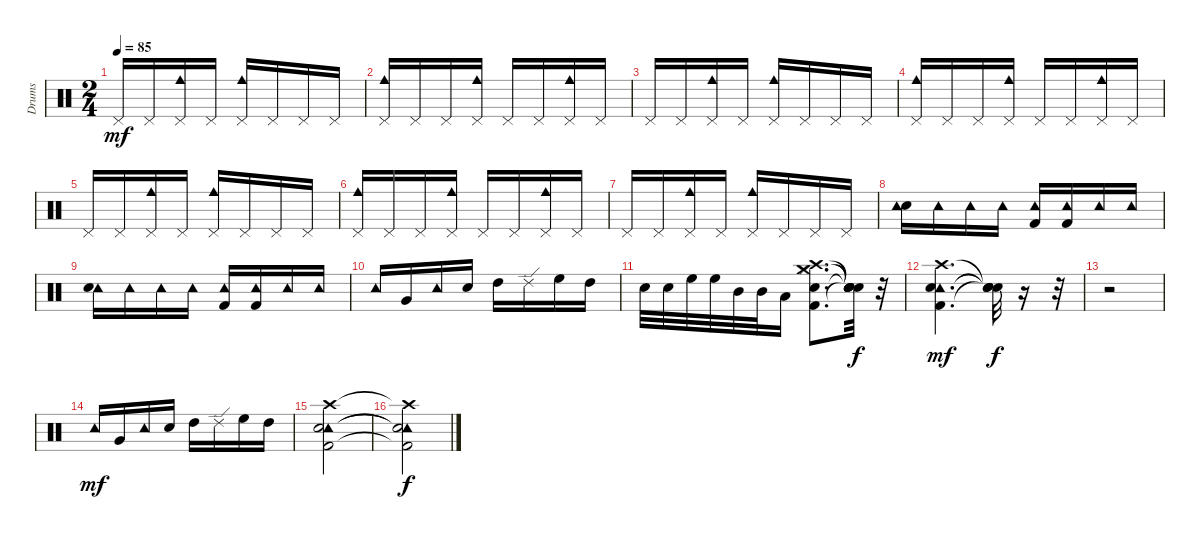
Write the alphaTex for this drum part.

\track ("Drums" "Drums") {instrument percussion}
\staff {score}
\articulation defaults
\ts (2 4)
\tempo 85
\clef neutral
\ks c "Pedal Hi-Hat (hit)".16{dy mf} "Pedal Hi-Hat (hit)".16
("Pedal Hi-Hat (hit)" "Cowbell medium (hit)").16 "Pedal Hi-Hat (hit)".16 ("Pedal Hi-Hat (hit)" "Cowbell medium (hit)").16 "Pedal Hi-Hat (hit)".16 "Pedal Hi-Hat (hit)".16 "Pedal Hi-Hat (hit)".16 |
("Cowbell medium (hit)" "Pedal Hi-Hat (hit)").16 "Pedal Hi-Hat (hit)".16 "Pedal Hi-Hat (hit)".16 ("Pedal Hi-Hat (hit)" "Cowbell medium (hit)").16 "Pedal Hi-Hat (hit)".16 "Pedal Hi-Hat (hit)".16 ("Pedal Hi-Hat (hit)" "Cowbell medium (hit)").16 "Pedal Hi-Hat (hit)".16 |
"Pedal Hi-Hat (hit)".16 "Pedal Hi-Hat (hit)".16 ("Pedal Hi-Hat (hit)" "Cowbell medium (hit)").16 "Pedal Hi-Hat (hit)".16 ("Pedal Hi-Hat (hit)" "Cowbell medium (hit)").16 "Pedal Hi-Hat (hit)".16 "Pedal Hi-Hat (hit)".16 "Pedal Hi-Hat (hit)".16 |
("Cowbell medium (hit)" "Pedal Hi-Hat (hit)").16 "Pedal Hi-Hat (hit)".16 "Pedal Hi-Hat (hit)".16 ("Pedal Hi-Hat (hit)" "Cowbell medium (hit)").16 "Pedal Hi-Hat (hit)".16 "Pedal Hi-Hat (hit)".16 ("Pedal Hi-Hat (hit)" "Cowbell medium (hit)").16 "Pedal Hi-Hat (hit)".16 |
"Pedal Hi-Hat (hit)".16 "Pedal Hi-Hat (hit)".16 ("Pedal Hi-Hat (hit)" "Cowbell medium (hit)").16 "Pedal Hi-Hat (hit)".16 ("Pedal Hi-Hat (hit)" "Cowbell medium (hit)").16 "Pedal Hi-Hat (hit)".16 "Pedal Hi-Hat (hit)".16 "Pedal Hi-Hat (hit)".16 |
("Cowbell medium (hit)" "Pedal Hi-Hat (hit)").16 "Pedal Hi-Hat (hit)".16 "Pedal Hi-Hat (hit)".16 ("Pedal Hi-Hat (hit)" "Cowbell medium (hit)").16 "Pedal Hi-Hat (hit)".16 "Pedal Hi-Hat (hit)".16 ("Pedal Hi-Hat (hit)" "Cowbell medium (hit)").16 "Pedal Hi-Hat (hit)".16 |
"Pedal Hi-Hat (hit)".16 "Pedal Hi-Hat (hit)".16 ("Pedal Hi-Hat (hit)" "Cowbell medium (hit)").16 "Pedal Hi-Hat (hit)".16 ("Pedal Hi-Hat (hit)" "Cowbell medium (hit)").16 "Pedal Hi-Hat (hit)".16 "Pedal Hi-Hat (hit)".16 "Pedal Hi-Hat (hit)".16 |
("Snare (hit) 2" "Tambourine (hit)").16 "Tambourine (hit)".16 "Tambourine (hit)".16 "Tambourine (hit)".16 ("Kick (hit) 2" "Tambourine (hit)").16 ("Kick (hit) 2" "Tambourine (hit)").16 "Tambourine (hit)".16 "Tambourine (hit)".16 |
("Tambourine (hit)" "Snare (hit) 2").16 "Tambourine (hit)".16 "Tambourine (hit)".16 "Tambourine (hit)".16 ("Kick (hit) 2" "Tambourine (hit)").16 ("Tambourine (hit)" "Kick (hit) 2").16 "Tambourine (hit)".16 "Tambourine (hit)".16 |
"Tambourine (hit)".16 "Very Low Tom (hit)".16 "Tambourine (hit)".16 "Snare (hit) 2".16 "High Tom (hit)".16 "Ride (edge) 2".16 "High Floor Tom (hit)".16 "High Tom (hit)".16 |
"Snare (hit) 2".32 "Snare (hit) 2".32 "High Floor Tom (hit)".32 "High Floor Tom (hit)".32 "Mid Tom (hit)".32 "Mid Tom (hit)".32 "Low Floor Tom (hit)".16 ("Hi-Hat (closed)" "Crash medium (hit)" "Snare (hit) 2" "Kick (hit) 2" "Crash high (hit)").8{d} ("Snare (hit)"{t} "Snare (hit)"{t} "Snare (hit)"{t} "Snare (hit)"{t} "Snare (hit)"{t}).32{dy f} r.32 |
("Kick (hit) 2" "Tambourine (hit)" "Crash high (hit)" "Snare (hit) 2").4{d dy mf} ("Snare (hit)"{t} "Snare (hit)"{t} "Snare (hit)"{t} "Snare (hit)"{t}).32{dy f} r.16 r.32 |
r.2 |
"Tambourine (hit)".16{dy mf} "Very Low Tom (hit)".16 "Tambourine (hit)".16 "Snare (hit) 2".16 "High Tom (hit)".16 "Ride (edge) 2".16 "High Floor Tom (hit)".16 "High Tom (hit)".16 |
("Kick (hit) 2" "Tambourine (hit)" "Crash high (hit)" "Snare (hit) 2").2 |
("Kick (hit) 2"{t} "Tambourine (hit)"{t} "Crash high (hit)"{t} "Snare (hit) 2"{t}).2{dy f}
